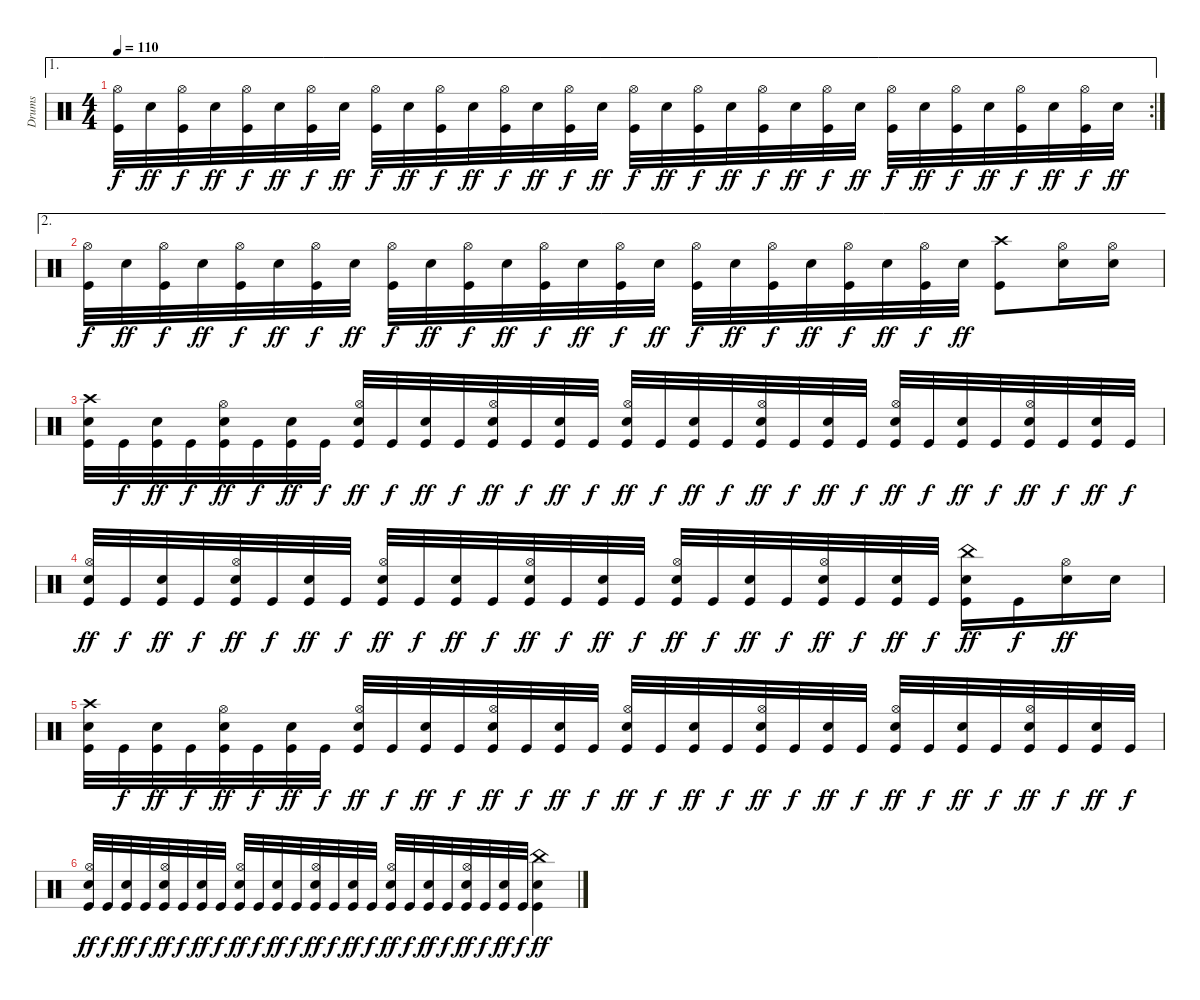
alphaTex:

\track ("Drums" "Drums") {instrument percussion}
\staff {score}
\articulation defaults
\ae 1
\rc 2
\ts (4 4)
\tempo 110
\clef neutral
\ks c
("Kick (hit)" "Hi-Hat (open)").32{dy f} "Electric Snare (hit)".32{dy ff} ("Kick (hit)" "Hi-Hat (open)").32{dy f} "Electric Snare (hit)".32{dy ff} ("Kick (hit)" "Hi-Hat (open)").32{dy f} "Electric Snare (hit)".32{dy ff} ("Kick (hit)" "Hi-Hat (open)").32{dy f} "Electric Snare (hit)".32{dy ff} ("Kick (hit)" "Hi-Hat (open)").32{dy f} "Electric Snare (hit)".32{dy ff} ("Kick (hit)" "Hi-Hat (open)").32{dy f} "Electric Snare (hit)".32{dy ff} ("Kick (hit)" "Hi-Hat (open)").32{dy f} "Electric Snare (hit)".32{dy ff} ("Kick (hit)" "Hi-Hat (open)").32{dy f} "Electric Snare (hit)".32{dy ff} ("Kick (hit)" "Hi-Hat (open)").32{dy f} "Electric Snare (hit)".32{dy ff} ("Kick (hit)" "Hi-Hat (open)").32{dy f} "Electric Snare (hit)".32{dy ff} ("Kick (hit)" "Hi-Hat (open)").32{dy f} "Electric Snare (hit)".32{dy ff} ("Kick (hit)" "Hi-Hat (open)").32{dy f} "Electric Snare (hit)".32{dy ff} ("Kick (hit)" "Hi-Hat (open)").32{dy f} "Electric Snare (hit)".32{dy ff} ("Kick (hit)" "Hi-Hat (open)").32{dy f} "Electric Snare (hit)".32{dy ff} ("Kick (hit)" "Hi-Hat (open)").32{dy f} "Electric Snare (hit)".32{dy ff} ("Kick (hit)" "Hi-Hat (open)").32{dy f} "Electric Snare (hit)".32{dy ff} |
\ae 2
("Kick (hit)" "Hi-Hat (open)").32{dy f} "Electric Snare (hit)".32{dy ff} ("Kick (hit)" "Hi-Hat (open)").32{dy f} "Electric Snare (hit)".32{dy ff} ("Kick (hit)" "Hi-Hat (open)").32{dy f} "Electric Snare (hit)".32{dy ff} ("Kick (hit)" "Hi-Hat (open)").32{dy f} "Electric Snare (hit)".32{dy ff} ("Kick (hit)" "Hi-Hat (open)").32{dy f} "Electric Snare (hit)".32{dy ff} ("Kick (hit)" "Hi-Hat (open)").32{dy f} "Electric Snare (hit)".32{dy ff} ("Kick (hit)" "Hi-Hat (open)").32{dy f} "Electric Snare (hit)".32{dy ff} ("Kick (hit)" "Hi-Hat (open)").32{dy f} "Electric Snare (hit)".32{dy ff} ("Kick (hit)" "Hi-Hat (open)").32{dy f} "Electric Snare (hit)".32{dy ff} ("Kick (hit)" "Hi-Hat (open)").32{dy f} "Electric Snare (hit)".32{dy ff} ("Kick (hit)" "Hi-Hat (open)").32{dy f} "Electric Snare (hit)".32{dy ff} ("Kick (hit)" "Hi-Hat (open)").32{dy f} "Electric Snare (hit)".32{dy ff} ("Kick (hit)" "Crash high (hit)").8 ("Electric Snare (hit)" "Hi-Hat (open)").16 ("Electric Snare (hit)" "Hi-Hat (open)").16 |
("Kick (hit)" "Electric Snare (hit)" "Crash high (hit)").32 "Kick (hit)".32{dy f} ("Kick (hit)" "Electric Snare (hit)").32{dy ff} "Kick (hit)".32{dy f} ("Kick (hit)" "Electric Snare (hit)" "Hi-Hat (open)").32{dy ff} "Kick (hit)".32{dy f} ("Kick (hit)" "Electric Snare (hit)").32{dy ff} "Kick (hit)".32{dy f} ("Kick (hit)" "Electric Snare (hit)" "Hi-Hat (open)").32{dy ff} "Kick (hit)".32{dy f} ("Kick (hit)" "Electric Snare (hit)").32{dy ff} "Kick (hit)".32{dy f} ("Kick (hit)" "Electric Snare (hit)" "Hi-Hat (open)").32{dy ff} "Kick (hit)".32{dy f} ("Kick (hit)" "Electric Snare (hit)").32{dy ff} "Kick (hit)".32{dy f} ("Kick (hit)" "Electric Snare (hit)" "Hi-Hat (open)").32{dy ff} "Kick (hit)".32{dy f} ("Kick (hit)" "Electric Snare (hit)").32{dy ff} "Kick (hit)".32{dy f} ("Kick (hit)" "Electric Snare (hit)" "Hi-Hat (open)").32{dy ff} "Kick (hit)".32{dy f} ("Kick (hit)" "Electric Snare (hit)").32{dy ff} "Kick (hit)".32{dy f} ("Kick (hit)" "Electric Snare (hit)" "Hi-Hat (open)").32{dy ff} "Kick (hit)".32{dy f} ("Kick (hit)" "Electric Snare (hit)").32{dy ff} "Kick (hit)".32{dy f} ("Kick (hit)" "Electric Snare (hit)" "Hi-Hat (open)").32{dy ff} "Kick (hit)".32{dy f} ("Kick (hit)" "Electric Snare (hit)").32{dy ff} "Kick (hit)".32{dy f} |
("Kick (hit)" "Electric Snare (hit)" "Hi-Hat (open)").32{dy ff} "Kick (hit)".32{dy f} ("Kick (hit)" "Electric Snare (hit)").32{dy ff} "Kick (hit)".32{dy f} ("Kick (hit)" "Electric Snare (hit)" "Hi-Hat (open)").32{dy ff} "Kick (hit)".32{dy f} ("Kick (hit)" "Electric Snare (hit)").32{dy ff} "Kick (hit)".32{dy f} ("Kick (hit)" "Electric Snare (hit)" "Hi-Hat (open)").32{dy ff} "Kick (hit)".32{dy f} ("Kick (hit)" "Electric Snare (hit)").32{dy ff} "Kick (hit)".32{dy f} ("Kick (hit)" "Electric Snare (hit)" "Hi-Hat (open)").32{dy ff} "Kick (hit)".32{dy f} ("Kick (hit)" "Electric Snare (hit)").32{dy ff} "Kick (hit)".32{dy f} ("Kick (hit)" "Electric Snare (hit)" "Hi-Hat (open)").32{dy ff} "Kick (hit)".32{dy f} ("Kick (hit)" "Electric Snare (hit)").32{dy ff} "Kick (hit)".32{dy f} ("Kick (hit)" "Electric Snare (hit)" "Hi-Hat (open)").32{dy ff} "Kick (hit)".32{dy f} ("Kick (hit)" "Electric Snare (hit)").32{dy ff} "Kick (hit)".32{dy f} ("Kick (hit)" "Electric Snare (hit)" "China (hit)").16{dy ff} "Kick (hit)".16{dy f} ("Electric Snare (hit)" "Hi-Hat (open)").16{dy ff} "Electric Snare (hit)".16 |
("Kick (hit)" "Electric Snare (hit)" "Crash high (hit)").32 "Kick (hit)".32{dy f} ("Kick (hit)" "Electric Snare (hit)").32{dy ff} "Kick (hit)".32{dy f} ("Kick (hit)" "Electric Snare (hit)" "Hi-Hat (open)").32{dy ff} "Kick (hit)".32{dy f} ("Kick (hit)" "Electric Snare (hit)").32{dy ff} "Kick (hit)".32{dy f} ("Kick (hit)" "Electric Snare (hit)" "Hi-Hat (open)").32{dy ff} "Kick (hit)".32{dy f} ("Kick (hit)" "Electric Snare (hit)").32{dy ff} "Kick (hit)".32{dy f} ("Kick (hit)" "Electric Snare (hit)" "Hi-Hat (open)").32{dy ff} "Kick (hit)".32{dy f} ("Kick (hit)" "Electric Snare (hit)").32{dy ff} "Kick (hit)".32{dy f} ("Kick (hit)" "Electric Snare (hit)" "Hi-Hat (open)").32{dy ff} "Kick (hit)".32{dy f} ("Kick (hit)" "Electric Snare (hit)").32{dy ff} "Kick (hit)".32{dy f} ("Kick (hit)" "Electric Snare (hit)" "Hi-Hat (open)").32{dy ff} "Kick (hit)".32{dy f} ("Kick (hit)" "Electric Snare (hit)").32{dy ff} "Kick (hit)".32{dy f} ("Kick (hit)" "Electric Snare (hit)" "Hi-Hat (open)").32{dy ff} "Kick (hit)".32{dy f} ("Kick (hit)" "Electric Snare (hit)").32{dy ff} "Kick (hit)".32{dy f} ("Kick (hit)" "Electric Snare (hit)" "Hi-Hat (open)").32{dy ff} "Kick (hit)".32{dy f} ("Kick (hit)" "Electric Snare (hit)").32{dy ff} "Kick (hit)".32{dy f} |
("Kick (hit)" "Electric Snare (hit)" "Hi-Hat (open)").32{dy ff} "Kick (hit)".32{dy f} ("Kick (hit)" "Electric Snare (hit)").32{dy ff} "Kick (hit)".32{dy f} ("Kick (hit)" "Electric Snare (hit)" "Hi-Hat (open)").32{dy ff} "Kick (hit)".32{dy f} ("Kick (hit)" "Electric Snare (hit)").32{dy ff} "Kick (hit)".32{dy f} ("Kick (hit)" "Electric Snare (hit)" "Hi-Hat (open)").32{dy ff} "Kick (hit)".32{dy f} ("Kick (hit)" "Electric Snare (hit)").32{dy ff} "Kick (hit)".32{dy f} ("Kick (hit)" "Electric Snare (hit)" "Hi-Hat (open)").32{dy ff} "Kick (hit)".32{dy f} ("Kick (hit)" "Electric Snare (hit)").32{dy ff} "Kick (hit)".32{dy f} ("Kick (hit)" "Electric Snare (hit)" "Hi-Hat (open)").32{dy ff} "Kick (hit)".32{dy f} ("Kick (hit)" "Electric Snare (hit)").32{dy ff} "Kick (hit)".32{dy f} ("Kick (hit)" "Electric Snare (hit)" "Hi-Hat (open)").32{dy ff} "Kick (hit)".32{dy f} ("Kick (hit)" "Electric Snare (hit)").32{dy ff} "Kick (hit)".32{dy f} ("Kick (hit)" "Electric Snare (hit)" "China (hit)").4{dy ff}
